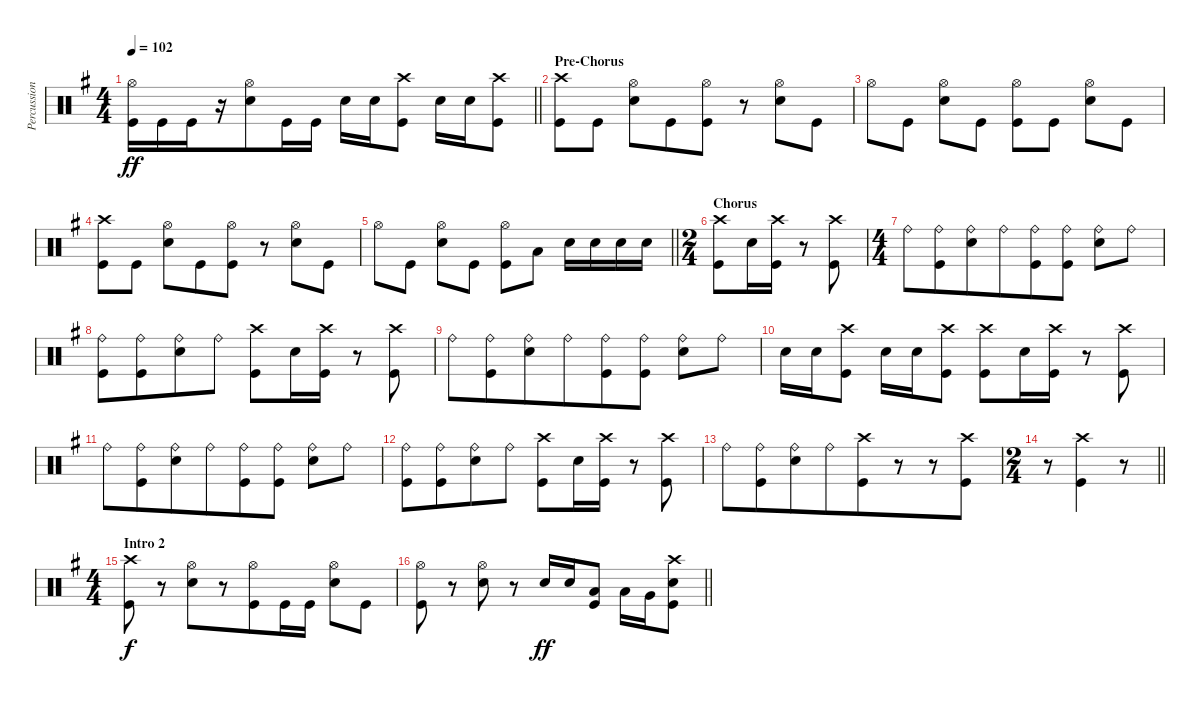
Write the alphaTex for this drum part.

\track ("Percussion" "Percussion") {instrument percussion}
\staff {score}
\articulation defaults
\ts (4 4)
\tempo 102
\clef neutral
\barLineRight lightlight
\ks g
("Kick (hit)" "Hi-Hat (open)").16{dy ff beam merge} "Kick (hit)".16 "Kick (hit)".16{beam merge} r.16 ("Electric Snare (hit)" "Hi-Hat (open)").8 "Kick (hit)".16{beam merge} "Kick (hit)".16 "Electric Snare (hit)".16 "Electric Snare (hit)".16 ("Kick (hit)" "Crash high (hit)").8 "Electric Snare (hit)".16 "Electric Snare (hit)".16 ("Kick (hit)" "Crash high (hit)").8 |
\section ("" "Pre-Chorus")
("Kick (hit)" "Crash high (hit)").8 "Kick (hit)".8 ("Electric Snare (hit)" "Hi-Hat (open)").8{beam merge} "Kick (hit)".8{beam merge} ("Kick (hit)" "Hi-Hat (open)").8 r.8 ("Electric Snare (hit)" "Hi-Hat (open)").8{beam merge} "Kick (hit)".8 |
"Hi-Hat (open)".8{beam merge} "Kick (hit)".8 ("Electric Snare (hit)" "Hi-Hat (open)").8 "Kick (hit)".8 ("Kick (hit)" "Hi-Hat (open)").8{beam merge} "Kick (hit)".8 ("Hi-Hat (open)" "Electric Snare (hit)").8 "Kick (hit)".8 |
("Kick (hit)" "Crash high (hit)").8 "Kick (hit)".8 ("Electric Snare (hit)" "Hi-Hat (open)").8{beam merge} "Kick (hit)".8{beam merge} ("Kick (hit)" "Hi-Hat (open)").8 r.8 ("Electric Snare (hit)" "Hi-Hat (open)").8{beam merge} "Kick (hit)".8 |
\barLineRight lightlight "Hi-Hat (open)".8{beam merge} "Kick (hit)".8
("Electric Snare (hit)" "Hi-Hat (open)").8 "Kick (hit)".8 ("Kick (hit)" "Hi-Hat (open)").8{beam merge} "Low Tom (hit)".8 "Electric Snare (hit)".16 "Electric Snare (hit)".16 "Electric Snare (hit)".16{beam merge} "Electric Snare (hit)".16 |
\ts (2 4)
\section ("" "Chorus")
("Kick (hit)" "Crash high (hit)").8{beam merge} "Electric Snare (hit)".16{beam merge} ("Kick (hit)" "Crash high (hit)").16 r.8 ("Kick (hit)" "Crash high (hit)").8 |
\ts (4 4)
"Ride (bell)".8 ("Ride (bell)" "Kick (hit)").8{beam merge} ("Ride (bell)" "Electric Snare (hit)").8{beam merge} "Ride (bell)".8{beam merge} ("Ride (bell)" "Kick (hit)").8{beam merge} ("Ride (bell)" "Kick (hit)").8 ("Ride (bell)" "Electric Snare (hit)").8{beam merge} "Ride (bell)".8 |
("Ride (bell)" "Kick (hit)").8 ("Ride (bell)" "Kick (hit)").8{beam merge} ("Ride (bell)" "Electric Snare (hit)").8{beam merge} "Ride (bell)".8 ("Kick (hit)" "Crash high (hit)").8{beam merge} "Electric Snare (hit)".16{beam merge} ("Kick (hit)" "Crash high (hit)").16 r.8 ("Kick (hit)" "Crash high (hit)").8 |
"Ride (bell)".8 ("Ride (bell)" "Kick (hit)").8{beam merge} ("Ride (bell)" "Electric Snare (hit)").8{beam merge} "Ride (bell)".8{beam merge} ("Ride (bell)" "Kick (hit)").8{beam merge} ("Ride (bell)" "Kick (hit)").8 ("Ride (bell)" "Electric Snare (hit)").8{beam merge} "Ride (bell)".8 |
"Electric Snare (hit)".16 "Electric Snare (hit)".16 ("Kick (hit)" "Crash high (hit)").8 "Electric Snare (hit)".16 "Electric Snare (hit)".16 ("Kick (hit)" "Crash high (hit)").8 ("Kick (hit)" "Crash high (hit)").8{beam merge} "Electric Snare (hit)".16{beam merge} ("Kick (hit)" "Crash high (hit)").16 r.8 ("Kick (hit)" "Crash high (hit)").8 |
"Ride (bell)".8 ("Ride (bell)" "Kick (hit)").8{beam merge} ("Ride (bell)" "Electric Snare (hit)").8{beam merge} "Ride (bell)".8{beam merge} ("Ride (bell)" "Kick (hit)").8{beam merge} ("Ride (bell)" "Kick (hit)").8 ("Ride (bell)" "Electric Snare (hit)").8{beam merge} "Ride (bell)".8 |
("Ride (bell)" "Kick (hit)").8 ("Ride (bell)" "Kick (hit)").8{beam merge} ("Ride (bell)" "Electric Snare (hit)").8{beam merge} "Ride (bell)".8 ("Kick (hit)" "Crash high (hit)").8{beam merge} "Electric Snare (hit)".16{beam merge} ("Kick (hit)" "Crash high (hit)").16 r.8 ("Kick (hit)" "Crash high (hit)").8 |
"Ride (bell)".8 ("Ride (bell)" "Kick (hit)").8{beam merge} ("Ride (bell)" "Electric Snare (hit)").8{beam merge} "Ride (bell)".8{beam merge} ("Kick (hit)" "Crash high (hit)").8{beam merge} r.8 r.8{beam merge} ("Kick (hit)" "Crash high (hit)").8 |
\ts (2 4)
\barLineRight lightlight
r.8{beam merge} ("Kick (hit)" "Crash high (hit)").4{beam merge} r.8 |
\ts (4 4)
\section ("" "Intro 2")
("Kick (hit)" "Crash high (hit)").8{dy f} r.8{beam merge} ("Electric Snare (hit)" "Hi-Hat (open)").8{beam merge} r.8 ("Kick (hit)" "Hi-Hat (open)").8 "Kick (hit)".16 "Kick (hit)".16 ("Electric Snare (hit)" "Hi-Hat (open)").8 "Kick (hit)".8 |
\barLineRight lightlight
("Kick (hit)" "Hi-Hat (open)").8 r.8{beam merge} ("Electric Snare (hit)" "Hi-Hat (open)").8 r.8 "Electric Snare (hit)".16{dy ff} "Electric Snare (hit)".16 ("Kick (hit)" "Low Tom (hit)").8 "Low Tom (hit)".16 "Very Low Tom (hit)".16 ("Kick (hit)" "Electric Snare (hit)" "Crash high (hit)").8
